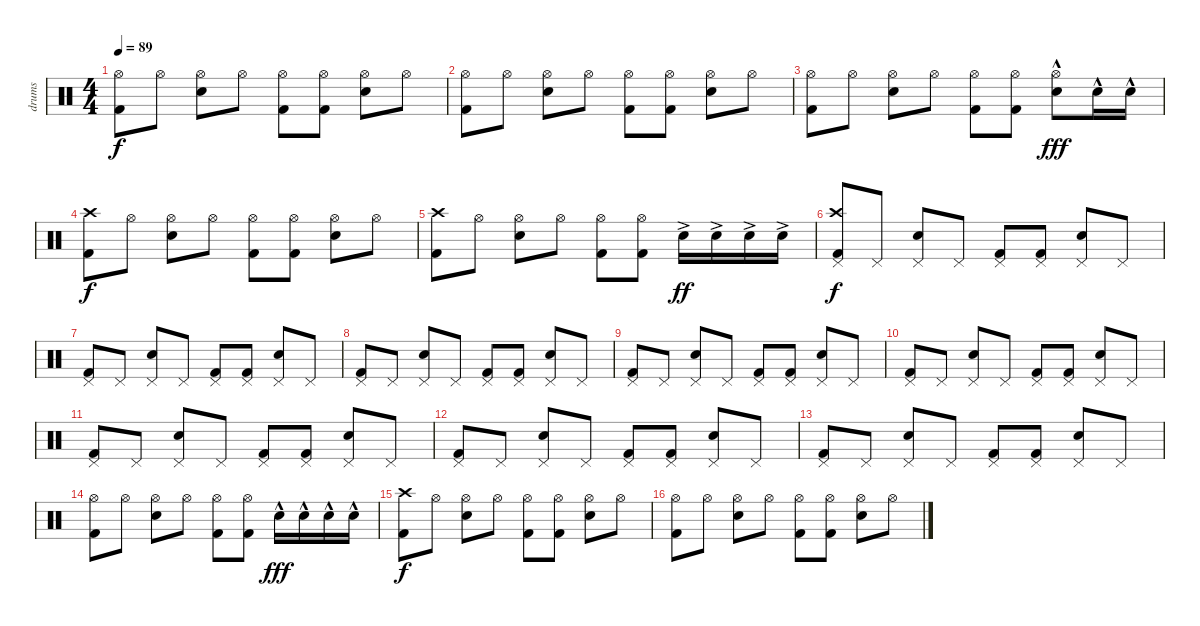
\track ("drums" "drums") {instrument percussion}
\staff {score}
\articulation defaults
\ts (4 4)
\tempo 89
\clef neutral
\ks c
("Kick (hit) 2" "Hi-Hat (open)").8{dy f} "Hi-Hat (open)".8 ("Electric Snare (hit)" "Hi-Hat (open)").8 "Hi-Hat (open)".8 ("Kick (hit) 2" "Hi-Hat (open)").8 ("Kick (hit) 2" "Hi-Hat (open)").8 ("Electric Snare (hit)" "Hi-Hat (open)").8 "Hi-Hat (open)".8 |
("Kick (hit) 2" "Hi-Hat (open)").8 "Hi-Hat (open)".8 ("Electric Snare (hit)" "Hi-Hat (open)").8 "Hi-Hat (open)".8 ("Kick (hit) 2" "Hi-Hat (open)").8 ("Kick (hit) 2" "Hi-Hat (open)").8 ("Electric Snare (hit)" "Hi-Hat (open)").8 "Hi-Hat (open)".8 |
("Kick (hit) 2" "Hi-Hat (open)").8 "Hi-Hat (open)".8 ("Electric Snare (hit)" "Hi-Hat (open)").8 "Hi-Hat (open)".8 ("Kick (hit) 2" "Hi-Hat (open)").8 ("Kick (hit) 2" "Hi-Hat (open)").8 ("Electric Snare (hit)"{hac} "Hi-Hat (open)").8{dy fff} "Electric Snare (hit)"{hac}.16 "Electric Snare (hit)"{hac}.16 |
("Crash high (hit)" "Kick (hit) 2").8{dy f} "Hi-Hat (open)".8 ("Electric Snare (hit)" "Hi-Hat (open)").8 "Hi-Hat (open)".8 ("Kick (hit) 2" "Hi-Hat (open)").8 ("Kick (hit) 2" "Hi-Hat (open)").8 ("Electric Snare (hit)" "Hi-Hat (open)").8 "Hi-Hat (open)".8 |
("Crash high (hit)" "Kick (hit) 2").8 "Hi-Hat (open)".8 ("Electric Snare (hit)" "Hi-Hat (open)").8 "Hi-Hat (open)".8 ("Kick (hit) 2" "Hi-Hat (open)").8 ("Kick (hit) 2" "Hi-Hat (open)").8 "Electric Snare (hit)"{ac}.16{dy ff} "Electric Snare (hit)"{ac}.16 "Electric Snare (hit)"{ac}.16 "Electric Snare (hit)"{ac}.16 |
("Crash high (hit)" "Kick (hit) 2" "Pedal Hi-Hat (hit)").8{dy f} "Pedal Hi-Hat (hit)".8 ("Electric Snare (hit)" "Pedal Hi-Hat (hit)").8 "Pedal Hi-Hat (hit)".8 ("Kick (hit) 2" "Pedal Hi-Hat (hit)").8 ("Kick (hit) 2" "Pedal Hi-Hat (hit)").8 ("Electric Snare (hit)" "Pedal Hi-Hat (hit)").8 "Pedal Hi-Hat (hit)".8 |
("Kick (hit) 2" "Pedal Hi-Hat (hit)").8 "Pedal Hi-Hat (hit)".8 ("Electric Snare (hit)" "Pedal Hi-Hat (hit)").8 "Pedal Hi-Hat (hit)".8 ("Kick (hit) 2" "Pedal Hi-Hat (hit)").8 ("Kick (hit) 2" "Pedal Hi-Hat (hit)").8 ("Electric Snare (hit)" "Pedal Hi-Hat (hit)").8 "Pedal Hi-Hat (hit)".8 |
("Kick (hit) 2" "Pedal Hi-Hat (hit)").8 "Pedal Hi-Hat (hit)".8 ("Electric Snare (hit)" "Pedal Hi-Hat (hit)").8 "Pedal Hi-Hat (hit)".8 ("Kick (hit) 2" "Pedal Hi-Hat (hit)").8 ("Kick (hit) 2" "Pedal Hi-Hat (hit)").8 ("Electric Snare (hit)" "Pedal Hi-Hat (hit)").8 "Pedal Hi-Hat (hit)".8 |
("Kick (hit) 2" "Pedal Hi-Hat (hit)").8 "Pedal Hi-Hat (hit)".8 ("Electric Snare (hit)" "Pedal Hi-Hat (hit)").8 "Pedal Hi-Hat (hit)".8 ("Kick (hit) 2" "Pedal Hi-Hat (hit)").8 ("Kick (hit) 2" "Pedal Hi-Hat (hit)").8 ("Electric Snare (hit)" "Pedal Hi-Hat (hit)").8 "Pedal Hi-Hat (hit)".8 |
("Kick (hit) 2" "Pedal Hi-Hat (hit)").8 "Pedal Hi-Hat (hit)".8 ("Electric Snare (hit)" "Pedal Hi-Hat (hit)").8 "Pedal Hi-Hat (hit)".8 ("Kick (hit) 2" "Pedal Hi-Hat (hit)").8 ("Kick (hit) 2" "Pedal Hi-Hat (hit)").8 ("Electric Snare (hit)" "Pedal Hi-Hat (hit)").8 "Pedal Hi-Hat (hit)".8 |
("Kick (hit) 2" "Pedal Hi-Hat (hit)").8 "Pedal Hi-Hat (hit)".8 ("Electric Snare (hit)" "Pedal Hi-Hat (hit)").8 "Pedal Hi-Hat (hit)".8 ("Kick (hit) 2" "Pedal Hi-Hat (hit)").8 ("Kick (hit) 2" "Pedal Hi-Hat (hit)").8 ("Electric Snare (hit)" "Pedal Hi-Hat (hit)").8 "Pedal Hi-Hat (hit)".8 |
("Kick (hit) 2" "Pedal Hi-Hat (hit)").8 "Pedal Hi-Hat (hit)".8 ("Electric Snare (hit)" "Pedal Hi-Hat (hit)").8 "Pedal Hi-Hat (hit)".8 ("Kick (hit) 2" "Pedal Hi-Hat (hit)").8 ("Kick (hit) 2" "Pedal Hi-Hat (hit)").8 ("Electric Snare (hit)" "Pedal Hi-Hat (hit)").8 "Pedal Hi-Hat (hit)".8 |
("Kick (hit) 2" "Pedal Hi-Hat (hit)").8 "Pedal Hi-Hat (hit)".8 ("Electric Snare (hit)" "Pedal Hi-Hat (hit)").8 "Pedal Hi-Hat (hit)".8 ("Kick (hit) 2" "Pedal Hi-Hat (hit)").8 ("Kick (hit) 2" "Pedal Hi-Hat (hit)").8 ("Electric Snare (hit)" "Pedal Hi-Hat (hit)").8 "Pedal Hi-Hat (hit)".8 |
("Kick (hit) 2" "Hi-Hat (open)").8 "Hi-Hat (open)".8 ("Electric Snare (hit)" "Hi-Hat (open)").8 "Hi-Hat (open)".8 ("Kick (hit) 2" "Hi-Hat (open)").8 ("Kick (hit) 2" "Hi-Hat (open)").8 "Electric Snare (hit)"{hac}.16{dy fff} "Electric Snare (hit)"{hac}.16 "Electric Snare (hit)"{hac}.16 "Electric Snare (hit)"{hac}.16 |
("Crash high (hit)" "Kick (hit) 2").8{dy f} "Hi-Hat (open)".8 ("Electric Snare (hit)" "Hi-Hat (open)").8 "Hi-Hat (open)".8 ("Kick (hit) 2" "Hi-Hat (open)").8 ("Kick (hit) 2" "Hi-Hat (open)").8 ("Electric Snare (hit)" "Hi-Hat (open)").8 "Hi-Hat (open)".8 |
("Kick (hit) 2" "Hi-Hat (open)").8 "Hi-Hat (open)".8 ("Electric Snare (hit)" "Hi-Hat (open)").8 "Hi-Hat (open)".8 ("Kick (hit) 2" "Hi-Hat (open)").8 ("Kick (hit) 2" "Hi-Hat (open)").8 ("Electric Snare (hit)" "Hi-Hat (open)").8 "Hi-Hat (open)".8
